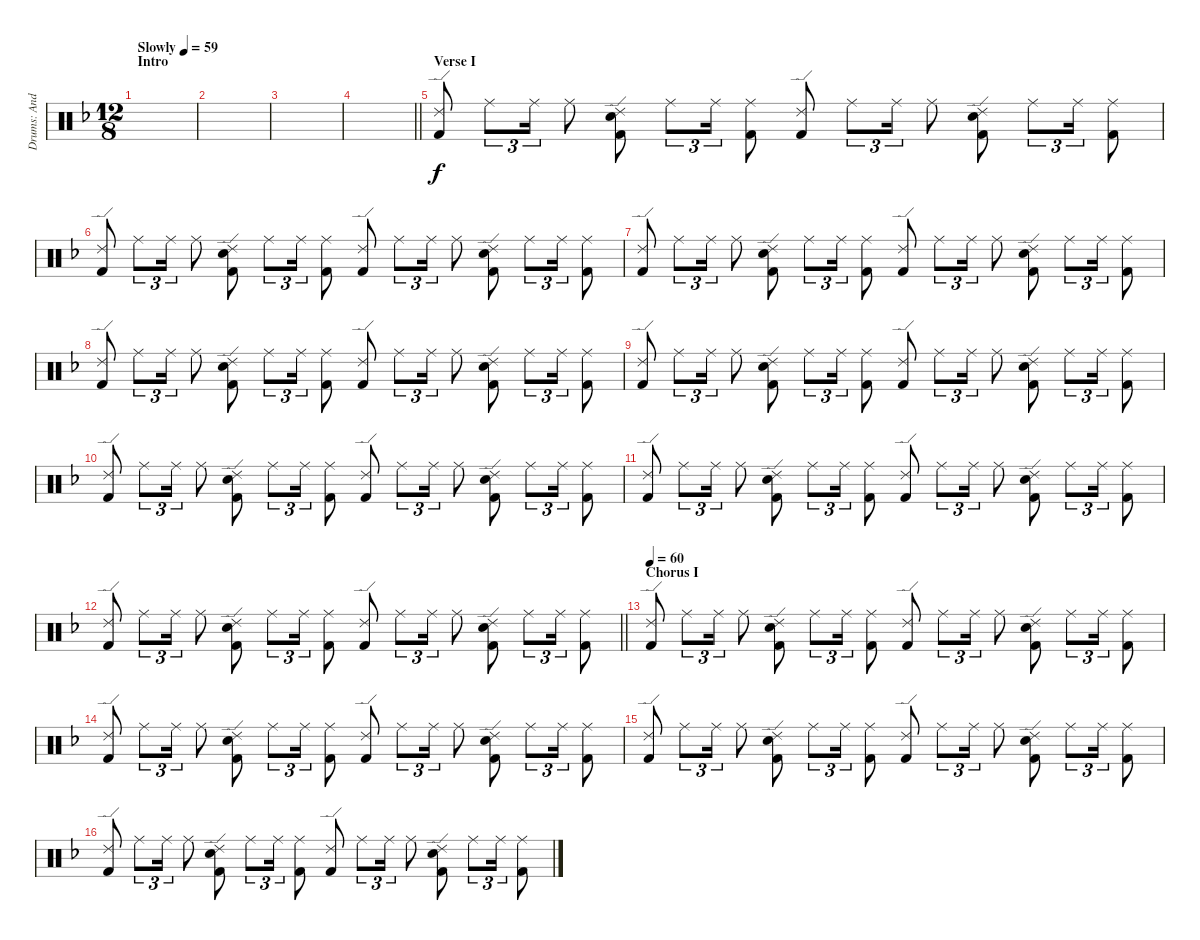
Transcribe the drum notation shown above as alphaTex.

\track ("Drums: Andy" "Drums: And") {instrument percussion}
\staff {score}
\articulation defaults
\ts (12 8)
\section ("" "Intro")
\tempo (59 "Slowly")
\clef neutral
\ks f
|
|
|
\barLineRight lightlight
|
\section ("" "Verse I")
("Ride (edge) 2" "Kick (hit) 2").8 "Ride (middle)".8{tu (3 2)} "Ride (middle)".16{tu (3 2)} "Ride (middle)".8 ("Ride (edge) 2" "Electric Snare (hit)" "Kick (hit) 2").8 "Ride (middle)".8{tu (3 2)} "Ride (middle)".16{tu (3 2)} ("Ride (middle)" "Kick (hit) 2").8 ("Ride (edge) 2" "Kick (hit) 2").8 "Ride (middle)".8{tu (3 2)} "Ride (middle)".16{tu (3 2)} "Ride (middle)".8 ("Ride (edge) 2" "Electric Snare (hit)" "Kick (hit) 2").8 "Ride (middle)".8{tu (3 2)} "Ride (middle)".16{tu (3 2)} ("Ride (middle)" "Kick (hit) 2").8 |
("Ride (edge) 2" "Kick (hit) 2").8 "Ride (middle)".8{tu (3 2)} "Ride (middle)".16{tu (3 2)} "Ride (middle)".8 ("Ride (edge) 2" "Electric Snare (hit)" "Kick (hit) 2").8 "Ride (middle)".8{tu (3 2)} "Ride (middle)".16{tu (3 2)} ("Ride (middle)" "Kick (hit) 2").8 ("Ride (edge) 2" "Kick (hit) 2").8 "Ride (middle)".8{tu (3 2)} "Ride (middle)".16{tu (3 2)} "Ride (middle)".8 ("Ride (edge) 2" "Electric Snare (hit)" "Kick (hit) 2").8 "Ride (middle)".8{tu (3 2)} "Ride (middle)".16{tu (3 2)} ("Ride (middle)" "Kick (hit) 2").8 |
("Ride (edge) 2" "Kick (hit) 2").8 "Ride (middle)".8{tu (3 2)} "Ride (middle)".16{tu (3 2)} "Ride (middle)".8 ("Ride (edge) 2" "Electric Snare (hit)" "Kick (hit) 2").8 "Ride (middle)".8{tu (3 2)} "Ride (middle)".16{tu (3 2)} ("Ride (middle)" "Kick (hit) 2").8 ("Ride (edge) 2" "Kick (hit) 2").8 "Ride (middle)".8{tu (3 2)} "Ride (middle)".16{tu (3 2)} "Ride (middle)".8 ("Ride (edge) 2" "Electric Snare (hit)" "Kick (hit) 2").8 "Ride (middle)".8{tu (3 2)} "Ride (middle)".16{tu (3 2)} ("Ride (middle)" "Kick (hit) 2").8 |
("Ride (edge) 2" "Kick (hit) 2").8 "Ride (middle)".8{tu (3 2)} "Ride (middle)".16{tu (3 2)} "Ride (middle)".8 ("Ride (edge) 2" "Electric Snare (hit)" "Kick (hit) 2").8 "Ride (middle)".8{tu (3 2)} "Ride (middle)".16{tu (3 2)} ("Ride (middle)" "Kick (hit) 2").8 ("Ride (edge) 2" "Kick (hit) 2").8 "Ride (middle)".8{tu (3 2)} "Ride (middle)".16{tu (3 2)} "Ride (middle)".8 ("Ride (edge) 2" "Electric Snare (hit)" "Kick (hit) 2").8 "Ride (middle)".8{tu (3 2)} "Ride (middle)".16{tu (3 2)} ("Ride (middle)" "Kick (hit) 2").8 |
("Ride (edge) 2" "Kick (hit) 2").8 "Ride (middle)".8{tu (3 2)} "Ride (middle)".16{tu (3 2)} "Ride (middle)".8 ("Ride (edge) 2" "Electric Snare (hit)" "Kick (hit) 2").8 "Ride (middle)".8{tu (3 2)} "Ride (middle)".16{tu (3 2)} ("Ride (middle)" "Kick (hit) 2").8 ("Ride (edge) 2" "Kick (hit) 2").8 "Ride (middle)".8{tu (3 2)} "Ride (middle)".16{tu (3 2)} "Ride (middle)".8 ("Ride (edge) 2" "Electric Snare (hit)" "Kick (hit) 2").8 "Ride (middle)".8{tu (3 2)} "Ride (middle)".16{tu (3 2)} ("Ride (middle)" "Kick (hit) 2").8 |
("Ride (edge) 2" "Kick (hit) 2").8 "Ride (middle)".8{tu (3 2)} "Ride (middle)".16{tu (3 2)} "Ride (middle)".8 ("Ride (edge) 2" "Electric Snare (hit)" "Kick (hit) 2").8 "Ride (middle)".8{tu (3 2)} "Ride (middle)".16{tu (3 2)} ("Ride (middle)" "Kick (hit) 2").8 ("Ride (edge) 2" "Kick (hit) 2").8 "Ride (middle)".8{tu (3 2)} "Ride (middle)".16{tu (3 2)} "Ride (middle)".8 ("Ride (edge) 2" "Electric Snare (hit)" "Kick (hit) 2").8 "Ride (middle)".8{tu (3 2)} "Ride (middle)".16{tu (3 2)} ("Ride (middle)" "Kick (hit) 2").8 |
("Ride (edge) 2" "Kick (hit) 2").8 "Ride (middle)".8{tu (3 2)} "Ride (middle)".16{tu (3 2)} "Ride (middle)".8 ("Ride (edge) 2" "Electric Snare (hit)" "Kick (hit) 2").8 "Ride (middle)".8{tu (3 2)} "Ride (middle)".16{tu (3 2)} ("Ride (middle)" "Kick (hit) 2").8 ("Ride (edge) 2" "Kick (hit) 2").8 "Ride (middle)".8{tu (3 2)} "Ride (middle)".16{tu (3 2)} "Ride (middle)".8 ("Ride (edge) 2" "Electric Snare (hit)" "Kick (hit) 2").8 "Ride (middle)".8{tu (3 2)} "Ride (middle)".16{tu (3 2)} ("Ride (middle)" "Kick (hit) 2").8 |
\barLineRight lightlight
("Ride (edge) 2" "Kick (hit) 2").8 "Ride (middle)".8{tu (3 2)} "Ride (middle)".16{tu (3 2)} "Ride (middle)".8 ("Ride (edge) 2" "Electric Snare (hit)" "Kick (hit) 2").8 "Ride (middle)".8{tu (3 2)} "Ride (middle)".16{tu (3 2)} ("Ride (middle)" "Kick (hit) 2").8 ("Ride (edge) 2" "Kick (hit) 2").8 "Ride (middle)".8{tu (3 2)} "Ride (middle)".16{tu (3 2)} "Ride (middle)".8 ("Ride (edge) 2" "Electric Snare (hit)" "Kick (hit) 2").8 "Ride (middle)".8{tu (3 2)} "Ride (middle)".16{tu (3 2)} ("Ride (middle)" "Kick (hit) 2").8 |
\section ("" "Chorus I")
\tempo 60
("Ride (edge) 2" "Kick (hit) 2").8 "Ride (middle)".8{tu (3 2)} "Ride (middle)".16{tu (3 2)} "Ride (middle)".8 ("Ride (edge) 2" "Electric Snare (hit)" "Kick (hit) 2").8 "Ride (middle)".8{tu (3 2)} "Ride (middle)".16{tu (3 2)} ("Ride (middle)" "Kick (hit) 2").8 ("Ride (edge) 2" "Kick (hit) 2").8 "Ride (middle)".8{tu (3 2)} "Ride (middle)".16{tu (3 2)} "Ride (middle)".8 ("Ride (edge) 2" "Electric Snare (hit)" "Kick (hit) 2").8 "Ride (middle)".8{tu (3 2)} "Ride (middle)".16{tu (3 2)} ("Ride (middle)" "Kick (hit) 2").8 |
("Ride (edge) 2" "Kick (hit) 2").8 "Ride (middle)".8{tu (3 2)} "Ride (middle)".16{tu (3 2)} "Ride (middle)".8 ("Ride (edge) 2" "Electric Snare (hit)" "Kick (hit) 2").8 "Ride (middle)".8{tu (3 2)} "Ride (middle)".16{tu (3 2)} ("Ride (middle)" "Kick (hit) 2").8 ("Ride (edge) 2" "Kick (hit) 2").8 "Ride (middle)".8{tu (3 2)} "Ride (middle)".16{tu (3 2)} "Ride (middle)".8 ("Ride (edge) 2" "Electric Snare (hit)" "Kick (hit) 2").8 "Ride (middle)".8{tu (3 2)} "Ride (middle)".16{tu (3 2)} ("Ride (middle)" "Kick (hit) 2").8 |
("Ride (edge) 2" "Kick (hit) 2").8 "Ride (middle)".8{tu (3 2)} "Ride (middle)".16{tu (3 2)} "Ride (middle)".8 ("Ride (edge) 2" "Electric Snare (hit)" "Kick (hit) 2").8 "Ride (middle)".8{tu (3 2)} "Ride (middle)".16{tu (3 2)} ("Ride (middle)" "Kick (hit) 2").8 ("Ride (edge) 2" "Kick (hit) 2").8 "Ride (middle)".8{tu (3 2)} "Ride (middle)".16{tu (3 2)} "Ride (middle)".8 ("Ride (edge) 2" "Electric Snare (hit)" "Kick (hit) 2").8 "Ride (middle)".8{tu (3 2)} "Ride (middle)".16{tu (3 2)} ("Ride (middle)" "Kick (hit) 2").8 |
("Ride (edge) 2" "Kick (hit) 2").8 "Ride (middle)".8{tu (3 2)} "Ride (middle)".16{tu (3 2)} "Ride (middle)".8 ("Ride (edge) 2" "Electric Snare (hit)" "Kick (hit) 2").8 "Ride (middle)".8{tu (3 2)} "Ride (middle)".16{tu (3 2)} ("Ride (middle)" "Kick (hit) 2").8 ("Ride (edge) 2" "Kick (hit) 2").8 "Ride (middle)".8{tu (3 2)} "Ride (middle)".16{tu (3 2)} "Ride (middle)".8 ("Ride (edge) 2" "Electric Snare (hit)" "Kick (hit) 2").8 "Ride (middle)".8{tu (3 2)} "Ride (middle)".16{tu (3 2)} ("Ride (middle)" "Kick (hit) 2").8
